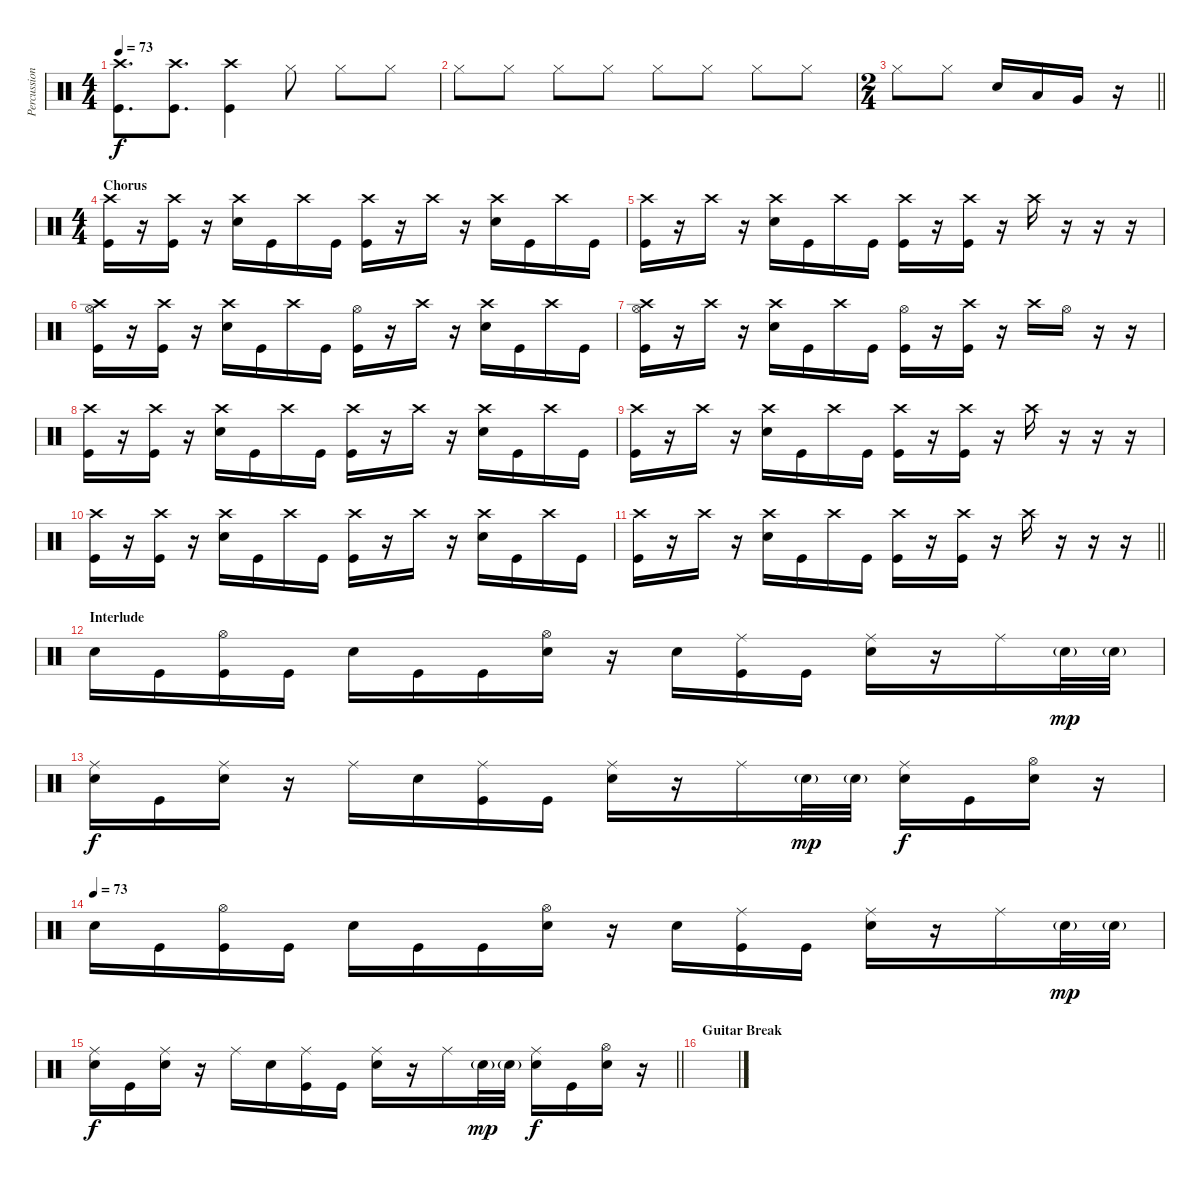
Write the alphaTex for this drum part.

\track ("Percussion" "Percussion") {instrument percussion}
\staff {score}
\articulation defaults
\ts (4 4)
\tempo 73
\clef neutral
\ks c
("Crash high (hit)" "Kick (hit)").8{d dy f} ("Crash high (hit)" "Kick (hit)").8{d} ("Crash high (hit)" "Kick (hit)").4 "Hi-Hat (closed)".8 "Hi-Hat (closed)".8 "Hi-Hat (closed)".8 |
"Hi-Hat (closed)".8 "Hi-Hat (closed)".8 "Hi-Hat (closed)".8 "Hi-Hat (closed)".8 "Hi-Hat (closed)".8 "Hi-Hat (closed)".8 "Hi-Hat (closed)".8 "Hi-Hat (closed)".8 |
\ts (2 4)
\barLineRight lightlight "Hi-Hat (closed)".8 "Hi-Hat (closed)".8 "Electric Snare (hit)".16 "Low Tom (hit)".16 "Very Low Tom (hit)".16
r.16 |
\ts (4 4)
\section ("" "Chorus")
("Crash high (hit)" "Kick (hit)").16 r.16 ("Crash high (hit)" "Kick (hit)").16 r.16 ("Crash high (hit)" "Electric Snare (hit)").16 "Kick (hit)".16 "Crash high (hit)".16 "Kick (hit)".16 ("Crash high (hit)" "Kick (hit)").16 r.16 "Crash high (hit)".16 r.16 ("Crash high (hit)" "Electric Snare (hit)").16 "Kick (hit)".16 "Crash high (hit)".16 "Kick (hit)".16 |
("Crash high (hit)" "Kick (hit)").16 r.16 "Crash high (hit)".16 r.16 ("Crash high (hit)" "Electric Snare (hit)").16 "Kick (hit)".16 "Crash high (hit)".16 "Kick (hit)".16 ("Crash high (hit)" "Kick (hit)").16 r.16 ("Crash high (hit)" "Kick (hit)").16 r.16 "Crash high (hit)".16 r.16 r.16 r.16 |
("Crash high (hit)" "Hi-Hat (open)" "Kick (hit)").16 r.16 ("Crash high (hit)" "Kick (hit)").16 r.16 ("Crash high (hit)" "Electric Snare (hit)").16 "Kick (hit)".16 "Crash high (hit)".16 "Kick (hit)".16 ("Hi-Hat (open)" "Kick (hit)").16 r.16 "Crash high (hit)".16 r.16 ("Crash high (hit)" "Electric Snare (hit)").16 "Kick (hit)".16 "Crash high (hit)".16 "Kick (hit)".16 |
("Crash high (hit)" "Hi-Hat (open)" "Kick (hit)").16 r.16 "Crash high (hit)".16 r.16 ("Crash high (hit)" "Electric Snare (hit)").16 "Kick (hit)".16 "Crash high (hit)".16 "Kick (hit)".16 ("Hi-Hat (open)" "Kick (hit)").16 r.16 ("Crash high (hit)" "Kick (hit)").16 r.16 "Crash high (hit)".16 "Hi-Hat (open)".16 r.16 r.16 |
("Crash high (hit)" "Kick (hit)").16 r.16 ("Crash high (hit)" "Kick (hit)").16 r.16 ("Crash high (hit)" "Electric Snare (hit)").16 "Kick (hit)".16 "Crash high (hit)".16 "Kick (hit)".16 ("Crash high (hit)" "Kick (hit)").16 r.16 "Crash high (hit)".16 r.16 ("Crash high (hit)" "Electric Snare (hit)").16 "Kick (hit)".16 "Crash high (hit)".16 "Kick (hit)".16 |
("Crash high (hit)" "Kick (hit)").16 r.16 "Crash high (hit)".16 r.16 ("Crash high (hit)" "Electric Snare (hit)").16 "Kick (hit)".16 "Crash high (hit)".16 "Kick (hit)".16 ("Crash high (hit)" "Kick (hit)").16 r.16 ("Crash high (hit)" "Kick (hit)").16 r.16 "Crash high (hit)".16 r.16 r.16 r.16 |
("Crash high (hit)" "Kick (hit)").16 r.16 ("Crash high (hit)" "Kick (hit)").16 r.16 ("Crash high (hit)" "Electric Snare (hit)").16 "Kick (hit)".16 "Crash high (hit)".16 "Kick (hit)".16 ("Crash high (hit)" "Kick (hit)").16 r.16 "Crash high (hit)".16 r.16 ("Crash high (hit)" "Electric Snare (hit)").16 "Kick (hit)".16 "Crash high (hit)".16 "Kick (hit)".16 |
\barLineRight lightlight
("Crash high (hit)" "Kick (hit)").16 r.16 "Crash high (hit)".16 r.16 ("Crash high (hit)" "Electric Snare (hit)").16 "Kick (hit)".16 "Crash high (hit)".16 "Kick (hit)".16 ("Crash high (hit)" "Kick (hit)").16 r.16 ("Crash high (hit)" "Kick (hit)").16 r.16 "Crash high (hit)".16 r.16 r.16 r.16 |
\section ("" "Interlude")
"Electric Snare (hit)".16 "Kick (hit)".16 ("Hi-Hat (open)" "Kick (hit)").16 "Kick (hit)".16 "Electric Snare (hit)".16 "Kick (hit)".16 "Kick (hit)".16 ("Hi-Hat (open)" "Electric Snare (hit)").16 r.16 "Electric Snare (hit)".16 ("Ride (middle)" "Kick (hit)").16 "Kick (hit)".16 ("Ride (middle)" "Electric Snare (hit)").16 r.16 "Ride (middle)".16 "Electric Snare (hit)"{g}.32{dy mp} "Electric Snare (hit)"{g}.32 |
("Ride (middle)" "Electric Snare (hit)").16{dy f} "Kick (hit)".16 ("Ride (middle)" "Electric Snare (hit)").16 r.16 "Ride (middle)".16 "Electric Snare (hit)".16 ("Ride (middle)" "Kick (hit)").16 "Kick (hit)".16 ("Ride (middle)" "Electric Snare (hit)").16 r.16 "Ride (middle)".16 "Electric Snare (hit)"{g}.32{dy mp} "Electric Snare (hit)"{g}.32 ("Ride (middle)" "Electric Snare (hit)").16{dy f} "Kick (hit)".16 ("Hi-Hat (open)" "Electric Snare (hit)").16 r.16 |
\tempo (73)
"Electric Snare (hit)".16 "Kick (hit)".16 ("Hi-Hat (open)" "Kick (hit)").16 "Kick (hit)".16 "Electric Snare (hit)".16 "Kick (hit)".16 "Kick (hit)".16 ("Hi-Hat (open)" "Electric Snare (hit)").16 r.16 "Electric Snare (hit)".16 ("Ride (middle)" "Kick (hit)").16 "Kick (hit)".16 ("Ride (middle)" "Electric Snare (hit)").16 r.16 "Ride (middle)".16 "Electric Snare (hit)"{g}.32{dy mp} "Electric Snare (hit)"{g}.32 |
\barLineRight lightlight
("Ride (middle)" "Electric Snare (hit)").16{dy f} "Kick (hit)".16 ("Ride (middle)" "Electric Snare (hit)").16 r.16 "Ride (middle)".16 "Electric Snare (hit)".16 ("Ride (middle)" "Kick (hit)").16 "Kick (hit)".16 ("Ride (middle)" "Electric Snare (hit)").16 r.16 "Ride (middle)".16 "Electric Snare (hit)"{g}.32{dy mp} "Electric Snare (hit)"{g}.32 ("Ride (middle)" "Electric Snare (hit)").16{dy f} "Kick (hit)".16 ("Hi-Hat (open)" "Electric Snare (hit)").16 r.16 |
\section ("" "Guitar Break")
